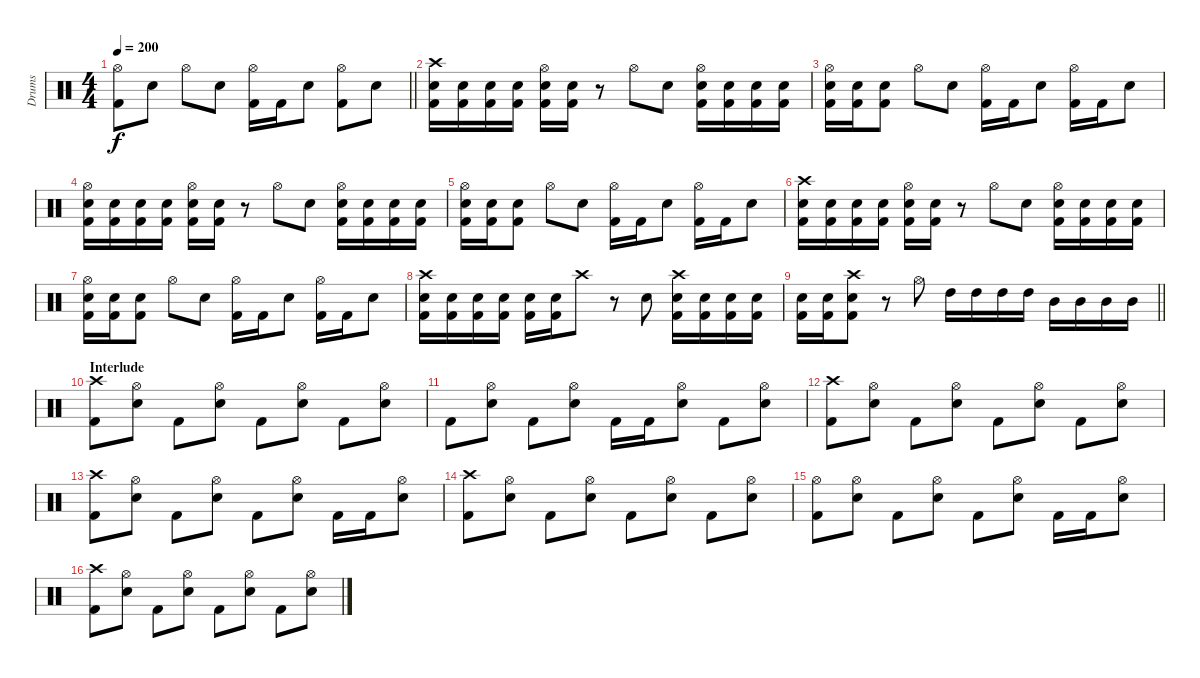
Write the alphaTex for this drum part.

\track ("Drums" "Drums") {instrument percussion}
\staff {score}
\articulation defaults
\ts (4 4)
\tempo 200
\clef neutral
\barLineRight lightlight
\ks c
("Hi-Hat (open)" "Kick (hit) 2").8{dy f} "Snare (hit) 2".8 "Hi-Hat (open)".8 "Snare (hit) 2".8 ("Hi-Hat (open)" "Kick (hit) 2").16 "Kick (hit) 2".16 "Snare (hit) 2".8 ("Hi-Hat (open)" "Kick (hit) 2").8 "Snare (hit) 2".8 |
("Crash high (hit)" "Snare (hit) 2" "Kick (hit) 2").16 ("Snare (hit) 2" "Kick (hit) 2").16 ("Snare (hit) 2" "Kick (hit) 2").16 ("Snare (hit) 2" "Kick (hit) 2").16 ("Hi-Hat (open)" "Snare (hit) 2" "Kick (hit) 2").16 ("Snare (hit) 2" "Kick (hit) 2").16 r.8 "Hi-Hat (open)".8 "Snare (hit) 2".8 ("Hi-Hat (open)" "Snare (hit) 2" "Kick (hit) 2").16 ("Snare (hit) 2" "Kick (hit) 2").16 ("Snare (hit) 2" "Kick (hit) 2").16 ("Snare (hit) 2" "Kick (hit) 2").16 |
("Hi-Hat (open)" "Snare (hit) 2" "Kick (hit) 2").16 ("Snare (hit) 2" "Kick (hit) 2").16 ("Snare (hit) 2" "Kick (hit) 2").8 "Hi-Hat (open)".8 "Snare (hit) 2".8 ("Hi-Hat (open)" "Kick (hit) 2").16 "Kick (hit) 2".16 "Snare (hit) 2".8 ("Hi-Hat (open)" "Kick (hit) 2").16 "Kick (hit) 2".16 "Snare (hit) 2".8 |
("Hi-Hat (open)" "Snare (hit) 2" "Kick (hit) 2").16 ("Snare (hit) 2" "Kick (hit) 2").16 ("Snare (hit) 2" "Kick (hit) 2").16 ("Snare (hit) 2" "Kick (hit) 2").16 ("Hi-Hat (open)" "Snare (hit) 2" "Kick (hit) 2").16 ("Snare (hit) 2" "Kick (hit) 2").16 r.8 "Hi-Hat (open)".8 "Snare (hit) 2".8 ("Hi-Hat (open)" "Snare (hit) 2" "Kick (hit) 2").16 ("Snare (hit) 2" "Kick (hit) 2").16 ("Snare (hit) 2" "Kick (hit) 2").16 ("Snare (hit) 2" "Kick (hit) 2").16 |
("Hi-Hat (open)" "Snare (hit) 2" "Kick (hit) 2").16 ("Snare (hit) 2" "Kick (hit) 2").16 ("Snare (hit) 2" "Kick (hit) 2").8 "Hi-Hat (open)".8 "Snare (hit) 2".8 ("Hi-Hat (open)" "Kick (hit) 2").16 "Kick (hit) 2".16 "Snare (hit) 2".8 ("Hi-Hat (open)" "Kick (hit) 2").16 "Kick (hit) 2".16 "Snare (hit) 2".8 |
("Crash high (hit)" "Snare (hit) 2" "Kick (hit) 2").16 ("Snare (hit) 2" "Kick (hit) 2").16 ("Snare (hit) 2" "Kick (hit) 2").16 ("Snare (hit) 2" "Kick (hit) 2").16 ("Hi-Hat (open)" "Snare (hit) 2" "Kick (hit) 2").16 ("Snare (hit) 2" "Kick (hit) 2").16 r.8 "Hi-Hat (open)".8 "Snare (hit) 2".8 ("Hi-Hat (open)" "Snare (hit) 2" "Kick (hit) 2").16 ("Snare (hit) 2" "Kick (hit) 2").16 ("Snare (hit) 2" "Kick (hit) 2").16 ("Snare (hit) 2" "Kick (hit) 2").16 |
("Hi-Hat (open)" "Snare (hit) 2" "Kick (hit) 2").16 ("Snare (hit) 2" "Kick (hit) 2").16 ("Snare (hit) 2" "Kick (hit) 2").8 "Hi-Hat (open)".8 "Snare (hit) 2".8 ("Hi-Hat (open)" "Kick (hit) 2").16 "Kick (hit) 2".16 "Snare (hit) 2".8 ("Hi-Hat (open)" "Kick (hit) 2").16 "Kick (hit) 2".16 "Snare (hit) 2".8 |
("Crash high (hit)" "Snare (hit) 2" "Kick (hit) 2").16 ("Snare (hit) 2" "Kick (hit) 2").16 ("Snare (hit) 2" "Kick (hit) 2").16 ("Snare (hit) 2" "Kick (hit) 2").16 ("Snare (hit) 2" "Kick (hit) 2").16 ("Snare (hit) 2" "Kick (hit) 2").16 "Crash high (hit)".8 r.8 "Snare (hit) 2".8 ("Crash high (hit)" "Snare (hit) 2" "Kick (hit) 2").16 ("Snare (hit) 2" "Kick (hit) 2").16 ("Snare (hit) 2" "Kick (hit) 2").16 ("Snare (hit) 2" "Kick (hit) 2").16 |
\barLineRight lightlight
("Snare (hit) 2" "Kick (hit) 2").16 ("Snare (hit) 2" "Kick (hit) 2").16 ("Crash high (hit)" "Snare (hit) 2" "Kick (hit) 2").8 r.8 "Hi-Hat (open)".8 "High Tom (hit)".16 "High Tom (hit)".16 "High Tom (hit)".16 "High Tom (hit)".16 "Mid Tom (hit)".16 "Mid Tom (hit)".16 "Mid Tom (hit)".16 "Mid Tom (hit)".16 |
\section ("" "Interlude")
("Crash high (hit)" "Kick (hit) 2").8 ("Hi-Hat (open)" "Snare (hit) 2").8 "Kick (hit) 2".8 ("Hi-Hat (open)" "Snare (hit) 2").8 "Kick (hit) 2".8 ("Hi-Hat (open)" "Snare (hit) 2").8 "Kick (hit) 2".8 ("Hi-Hat (open)" "Snare (hit) 2").8 |
"Kick (hit) 2".8 ("Hi-Hat (open)" "Snare (hit) 2").8 "Kick (hit) 2".8 ("Hi-Hat (open)" "Snare (hit) 2").8 "Kick (hit) 2".16 "Kick (hit) 2".16 ("Hi-Hat (open)" "Snare (hit) 2").8 "Kick (hit) 2".8 ("Hi-Hat (open)" "Snare (hit) 2").8 |
("Crash high (hit)" "Kick (hit) 2").8 ("Hi-Hat (open)" "Snare (hit) 2").8 "Kick (hit) 2".8 ("Hi-Hat (open)" "Snare (hit) 2").8 "Kick (hit) 2".8 ("Hi-Hat (open)" "Snare (hit) 2").8 "Kick (hit) 2".8 ("Hi-Hat (open)" "Snare (hit) 2").8 |
("Crash high (hit)" "Kick (hit) 2").8 ("Hi-Hat (open)" "Snare (hit) 2").8 "Kick (hit) 2".8 ("Hi-Hat (open)" "Snare (hit) 2").8 "Kick (hit) 2".8 ("Hi-Hat (open)" "Snare (hit) 2").8 "Kick (hit) 2".16 "Kick (hit) 2".16 ("Hi-Hat (open)" "Snare (hit) 2").8 |
("Crash high (hit)" "Kick (hit) 2").8 ("Hi-Hat (open)" "Snare (hit) 2").8 "Kick (hit) 2".8 ("Hi-Hat (open)" "Snare (hit) 2").8 "Kick (hit) 2".8 ("Hi-Hat (open)" "Snare (hit) 2").8 "Kick (hit) 2".8 ("Hi-Hat (open)" "Snare (hit) 2").8 |
("Hi-Hat (open)" "Kick (hit) 2").8 ("Hi-Hat (open)" "Snare (hit) 2").8 "Kick (hit) 2".8 ("Hi-Hat (open)" "Snare (hit) 2").8 "Kick (hit) 2".8 ("Hi-Hat (open)" "Snare (hit) 2").8 "Kick (hit) 2".16 "Kick (hit) 2".16 ("Hi-Hat (open)" "Snare (hit) 2").8 |
("Crash high (hit)" "Kick (hit) 2").8 ("Hi-Hat (open)" "Snare (hit) 2").8 "Kick (hit) 2".8 ("Hi-Hat (open)" "Snare (hit) 2").8 "Kick (hit) 2".8 ("Hi-Hat (open)" "Snare (hit) 2").8 "Kick (hit) 2".8 ("Hi-Hat (open)" "Snare (hit) 2").8
